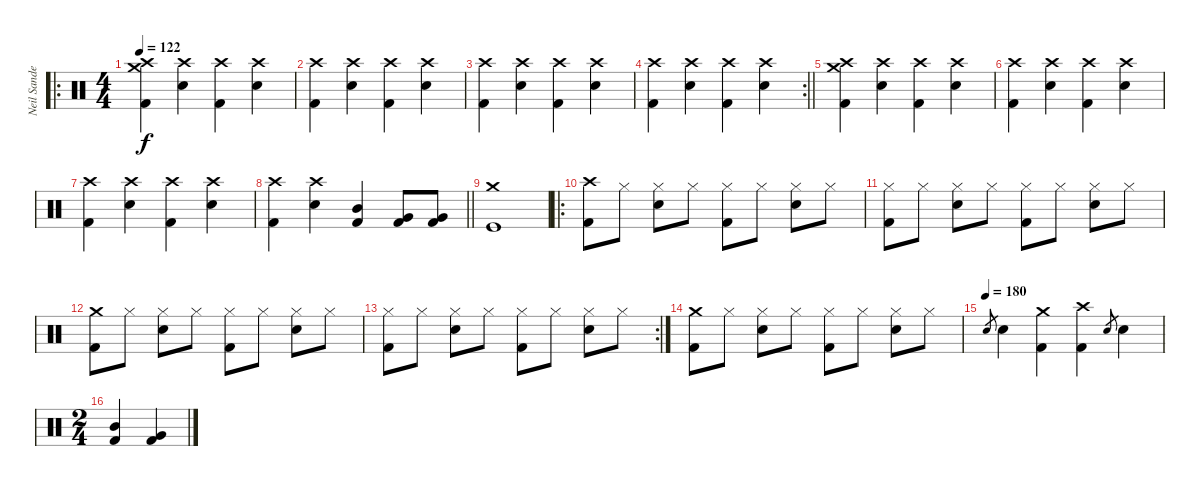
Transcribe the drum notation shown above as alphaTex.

\track ("Neil Sanderson-Drums" "Neil Sande") {instrument percussion}
\staff {score}
\articulation defaults
\ro
\ts (4 4)
\tempo 122
\clef neutral
\ks c
("Crash high (hit)" "Crash medium (hit)" "Kick (hit) 2").4{dy f} ("Crash high (hit)" "Snare (hit) 2").4 ("Crash high (hit)" "Kick (hit) 2").4 ("Crash high (hit)" "Snare (hit) 2").4 |
("Crash high (hit)" "Kick (hit) 2").4 ("Crash high (hit)" "Snare (hit) 2").4 ("Crash high (hit)" "Kick (hit) 2").4 ("Crash high (hit)" "Snare (hit) 2").4 |
("Crash high (hit)" "Kick (hit) 2").4 ("Crash high (hit)" "Snare (hit) 2").4 ("Crash high (hit)" "Kick (hit) 2").4 ("Crash high (hit)" "Snare (hit) 2").4 |
\rc 2
\barLineRight lightlight
("Crash high (hit)" "Kick (hit) 2").4 ("Crash high (hit)" "Snare (hit) 2").4 ("Crash high (hit)" "Kick (hit) 2").4 ("Crash high (hit)" "Snare (hit) 2").4 |
("Crash high (hit)" "Crash medium (hit)" "Kick (hit) 2").4 ("Crash high (hit)" "Snare (hit) 2").4 ("Crash high (hit)" "Kick (hit) 2").4 ("Crash high (hit)" "Snare (hit) 2").4 |
("Crash high (hit)" "Kick (hit) 2").4 ("Crash high (hit)" "Snare (hit) 2").4 ("Crash high (hit)" "Kick (hit) 2").4 ("Crash high (hit)" "Snare (hit) 2").4 |
("Crash high (hit)" "Kick (hit) 2").4 ("Crash high (hit)" "Snare (hit) 2").4 ("Crash high (hit)" "Kick (hit) 2").4 ("Crash high (hit)" "Snare (hit) 2").4 |
\barLineRight lightlight
("Crash high (hit)" "Kick (hit) 2").4 ("Crash high (hit)" "Snare (hit) 2").4 ("Mid Tom (hit)" "Kick (hit) 2").4 ("Very Low Tom (hit)" "Kick (hit) 2").8 ("Very Low Tom (hit)" "Kick (hit) 2").8 |
("Crash medium (hit)" "Kick (hit)").1 |
\ro
("Crash high (hit)" "Kick (hit) 2").8 "Hi-Hat (closed)".8 ("Hi-Hat (closed)" "Snare (hit) 2").8 "Hi-Hat (closed)".8 ("Hi-Hat (closed)" "Kick (hit) 2").8 "Hi-Hat (closed)".8 ("Hi-Hat (closed)" "Snare (hit) 2").8 "Hi-Hat (closed)".8 |
("Hi-Hat (closed)" "Kick (hit) 2").8 "Hi-Hat (closed)".8 ("Hi-Hat (closed)" "Snare (hit) 2").8 "Hi-Hat (closed)".8 ("Hi-Hat (closed)" "Kick (hit) 2").8 "Hi-Hat (closed)".8 ("Hi-Hat (closed)" "Snare (hit) 2").8 "Hi-Hat (closed)".8 |
("Crash medium (hit)" "Kick (hit) 2").8 "Hi-Hat (closed)".8 ("Hi-Hat (closed)" "Snare (hit) 2").8 "Hi-Hat (closed)".8 ("Hi-Hat (closed)" "Kick (hit) 2").8 "Hi-Hat (closed)".8 ("Hi-Hat (closed)" "Snare (hit) 2").8 "Hi-Hat (closed)".8 |
\rc 2
("Hi-Hat (closed)" "Kick (hit) 2").8 "Hi-Hat (closed)".8 ("Hi-Hat (closed)" "Snare (hit) 2").8 "Hi-Hat (closed)".8 ("Hi-Hat (closed)" "Kick (hit) 2").8 "Hi-Hat (closed)".8 ("Hi-Hat (closed)" "Snare (hit) 2").8 "Hi-Hat (closed)".8 |
("Crash medium (hit)" "Kick (hit) 2").8 "Hi-Hat (closed)".8 ("Hi-Hat (closed)" "Snare (hit) 2").8 "Hi-Hat (closed)".8 ("Hi-Hat (closed)" "Kick (hit) 2").8 "Hi-Hat (closed)".8 ("Hi-Hat (closed)" "Snare (hit) 2").8 "Hi-Hat (closed)".8 |
\tempo (180)
"Snare (hit) 2".8{gr} "Snare (hit) 2".4 ("Crash medium (hit)" "Kick (hit) 2").4 ("Crash high (hit)" "Kick (hit) 2").4 "Snare (hit) 2".8{gr} "Snare (hit) 2".4 |
\ts (2 4)
("Mid Tom (hit)" "Kick (hit) 2").4 ("Very Low Tom (hit)" "Kick (hit) 2").4
